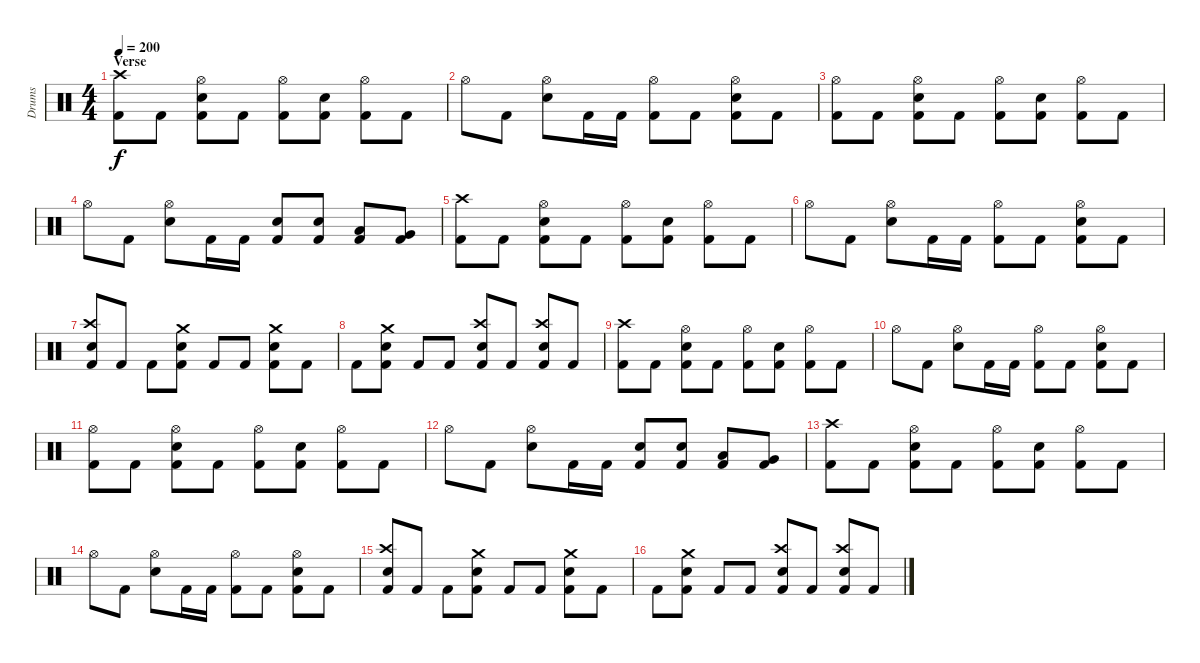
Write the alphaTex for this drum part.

\track ("Drums" "Drums") {instrument percussion}
\staff {score}
\articulation defaults
\ts (4 4)
\section ("" "Verse")
\tempo 200
\clef neutral
\ks c
("Kick (hit) 2" "Crash high (hit)").8{dy f} "Kick (hit) 2".8 ("Kick (hit) 2" "Electric Snare (hit)" "Hi-Hat (open)").8 "Kick (hit) 2".8 ("Kick (hit) 2" "Hi-Hat (open)").8 ("Kick (hit) 2" "Electric Snare (hit)").8 ("Kick (hit) 2" "Hi-Hat (open)").8 "Kick (hit) 2".8 |
"Hi-Hat (open)".8 "Kick (hit) 2".8 ("Electric Snare (hit)" "Hi-Hat (open)").8 "Kick (hit) 2".16 "Kick (hit) 2".16 ("Kick (hit) 2" "Hi-Hat (open)").8 "Kick (hit) 2".8 ("Kick (hit) 2" "Electric Snare (hit)" "Hi-Hat (open)").8 "Kick (hit) 2".8 |
("Kick (hit) 2" "Hi-Hat (open)").8 "Kick (hit) 2".8 ("Kick (hit) 2" "Electric Snare (hit)" "Hi-Hat (open)").8 "Kick (hit) 2".8 ("Kick (hit) 2" "Hi-Hat (open)").8 ("Kick (hit) 2" "Electric Snare (hit)").8 ("Kick (hit) 2" "Hi-Hat (open)").8 "Kick (hit) 2".8 |
"Hi-Hat (open)".8 "Kick (hit) 2".8 ("Electric Snare (hit)" "Hi-Hat (open)").8 "Kick (hit) 2".16 "Kick (hit) 2".16 ("Kick (hit) 2" "Electric Snare (hit)").8 ("Kick (hit) 2" "Electric Snare (hit)").8 ("Kick (hit) 2" "Low Tom (hit)").8 ("Kick (hit) 2" "Very Low Tom (hit)").8 |
("Kick (hit) 2" "Crash high (hit)").8 "Kick (hit) 2".8 ("Kick (hit) 2" "Electric Snare (hit)" "Hi-Hat (open)").8 "Kick (hit) 2".8 ("Kick (hit) 2" "Hi-Hat (open)").8 ("Kick (hit) 2" "Electric Snare (hit)").8 ("Kick (hit) 2" "Hi-Hat (open)").8 "Kick (hit) 2".8 |
"Hi-Hat (open)".8 "Kick (hit) 2".8 ("Electric Snare (hit)" "Hi-Hat (open)").8 "Kick (hit) 2".16 "Kick (hit) 2".16 ("Kick (hit) 2" "Hi-Hat (open)").8 "Kick (hit) 2".8 ("Kick (hit) 2" "Electric Snare (hit)" "Hi-Hat (open)").8 "Kick (hit) 2".8 |
("Kick (hit) 2" "Electric Snare (hit)" "Crash high (hit)").8 "Kick (hit) 2".8 "Kick (hit) 2".8 ("Kick (hit) 2" "Electric Snare (hit)" "Crash medium (hit)").8 "Kick (hit) 2".8 "Kick (hit) 2".8 ("Kick (hit) 2" "Electric Snare (hit)" "Crash medium (hit)").8 "Kick (hit) 2".8 |
"Kick (hit) 2".8 ("Kick (hit) 2" "Electric Snare (hit)" "Crash medium (hit)").8 "Kick (hit) 2".8 "Kick (hit) 2".8 ("Kick (hit) 2" "Electric Snare (hit)" "Crash high (hit)").8 "Kick (hit) 2".8 ("Kick (hit) 2" "Electric Snare (hit)" "Crash high (hit)").8 "Kick (hit) 2".8 |
("Kick (hit) 2" "Crash high (hit)").8 "Kick (hit) 2".8 ("Kick (hit) 2" "Electric Snare (hit)" "Hi-Hat (open)").8 "Kick (hit) 2".8 ("Kick (hit) 2" "Hi-Hat (open)").8 ("Kick (hit) 2" "Electric Snare (hit)").8 ("Kick (hit) 2" "Hi-Hat (open)").8 "Kick (hit) 2".8 |
"Hi-Hat (open)".8 "Kick (hit) 2".8 ("Electric Snare (hit)" "Hi-Hat (open)").8 "Kick (hit) 2".16 "Kick (hit) 2".16 ("Kick (hit) 2" "Hi-Hat (open)").8 "Kick (hit) 2".8 ("Kick (hit) 2" "Electric Snare (hit)" "Hi-Hat (open)").8 "Kick (hit) 2".8 |
("Kick (hit) 2" "Hi-Hat (open)").8 "Kick (hit) 2".8 ("Kick (hit) 2" "Electric Snare (hit)" "Hi-Hat (open)").8 "Kick (hit) 2".8 ("Kick (hit) 2" "Hi-Hat (open)").8 ("Kick (hit) 2" "Electric Snare (hit)").8 ("Kick (hit) 2" "Hi-Hat (open)").8 "Kick (hit) 2".8 |
"Hi-Hat (open)".8 "Kick (hit) 2".8 ("Electric Snare (hit)" "Hi-Hat (open)").8 "Kick (hit) 2".16 "Kick (hit) 2".16 ("Kick (hit) 2" "Electric Snare (hit)").8 ("Kick (hit) 2" "Electric Snare (hit)").8 ("Kick (hit) 2" "Low Tom (hit)").8 ("Kick (hit) 2" "Very Low Tom (hit)").8 |
("Kick (hit) 2" "Crash high (hit)").8 "Kick (hit) 2".8 ("Kick (hit) 2" "Electric Snare (hit)" "Hi-Hat (open)").8 "Kick (hit) 2".8 ("Kick (hit) 2" "Hi-Hat (open)").8 ("Kick (hit) 2" "Electric Snare (hit)").8 ("Kick (hit) 2" "Hi-Hat (open)").8 "Kick (hit) 2".8 |
"Hi-Hat (open)".8 "Kick (hit) 2".8 ("Electric Snare (hit)" "Hi-Hat (open)").8 "Kick (hit) 2".16 "Kick (hit) 2".16 ("Kick (hit) 2" "Hi-Hat (open)").8 "Kick (hit) 2".8 ("Kick (hit) 2" "Electric Snare (hit)" "Hi-Hat (open)").8 "Kick (hit) 2".8 |
("Kick (hit) 2" "Electric Snare (hit)" "Crash high (hit)").8 "Kick (hit) 2".8 "Kick (hit) 2".8 ("Kick (hit) 2" "Electric Snare (hit)" "Crash medium (hit)").8 "Kick (hit) 2".8 "Kick (hit) 2".8 ("Kick (hit) 2" "Electric Snare (hit)" "Crash medium (hit)").8 "Kick (hit) 2".8 |
"Kick (hit) 2".8 ("Kick (hit) 2" "Electric Snare (hit)" "Crash medium (hit)").8 "Kick (hit) 2".8 "Kick (hit) 2".8 ("Kick (hit) 2" "Electric Snare (hit)" "Crash high (hit)").8 "Kick (hit) 2".8 ("Kick (hit) 2" "Electric Snare (hit)" "Crash high (hit)").8 "Kick (hit) 2".8
